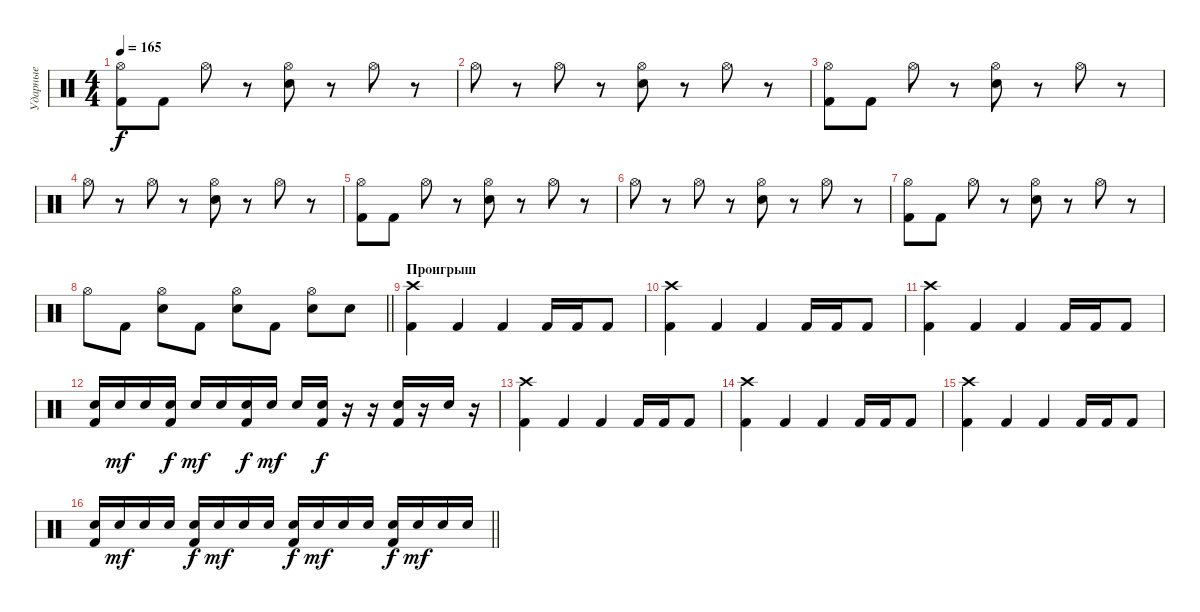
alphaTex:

\track ("Ударные" "Ударные") {instrument percussion}
\staff {score}
\articulation defaults
\ts (4 4)
\tempo 165
\clef neutral
\ks c
("Kick (hit) 2" "Hi-Hat (open)").8{dy f} "Kick (hit) 2".8 "Hi-Hat (open)".8 r.8 ("Electric Snare (hit)" "Hi-Hat (open)").8 r.8 "Hi-Hat (open)".8 r.8 |
"Hi-Hat (open)".8 r.8 "Hi-Hat (open)".8 r.8 ("Electric Snare (hit)" "Hi-Hat (open)").8 r.8 "Hi-Hat (open)".8 r.8 |
("Kick (hit) 2" "Hi-Hat (open)").8 "Kick (hit) 2".8 "Hi-Hat (open)".8 r.8 ("Electric Snare (hit)" "Hi-Hat (open)").8 r.8 "Hi-Hat (open)".8 r.8 |
"Hi-Hat (open)".8 r.8 "Hi-Hat (open)".8 r.8 ("Electric Snare (hit)" "Hi-Hat (open)").8 r.8 "Hi-Hat (open)".8 r.8 |
("Kick (hit) 2" "Hi-Hat (open)").8 "Kick (hit) 2".8 "Hi-Hat (open)".8 r.8 ("Electric Snare (hit)" "Hi-Hat (open)").8 r.8 "Hi-Hat (open)".8 r.8 |
"Hi-Hat (open)".8 r.8 "Hi-Hat (open)".8 r.8 ("Electric Snare (hit)" "Hi-Hat (open)").8 r.8 "Hi-Hat (open)".8 r.8 |
("Kick (hit) 2" "Hi-Hat (open)").8 "Kick (hit) 2".8 "Hi-Hat (open)".8 r.8 ("Electric Snare (hit)" "Hi-Hat (open)").8 r.8 "Hi-Hat (open)".8 r.8 |
\barLineRight lightlight "Hi-Hat (open)".8 "Kick (hit) 2".8
("Electric Snare (hit)" "Hi-Hat (open)").8 "Kick (hit) 2".8 ("Electric Snare (hit)" "Hi-Hat (open)").8 "Kick (hit) 2".8 ("Electric Snare (hit)" "Hi-Hat (open)").8 "Electric Snare (hit)".8 |
\section ("" "Проигрыш")
("Kick (hit) 2" "Crash high (hit)").4 "Kick (hit) 2".4 "Kick (hit) 2".4 "Kick (hit) 2".16 "Kick (hit) 2".16 "Kick (hit) 2".8 |
("Kick (hit) 2" "Crash high (hit)").4 "Kick (hit) 2".4 "Kick (hit) 2".4 "Kick (hit) 2".16 "Kick (hit) 2".16 "Kick (hit) 2".8 |
("Kick (hit) 2" "Crash high (hit)").4 "Kick (hit) 2".4 "Kick (hit) 2".4 "Kick (hit) 2".16 "Kick (hit) 2".16 "Kick (hit) 2".8 |
("Electric Snare (hit)" "Kick (hit) 2").16 "Electric Snare (hit)".16{dy mf} "Electric Snare (hit)".16 ("Electric Snare (hit)" "Kick (hit) 2").16{dy f} "Electric Snare (hit)".16{dy mf} "Electric Snare (hit)".16 ("Electric Snare (hit)" "Kick (hit) 2").16{dy f} "Electric Snare (hit)".16{dy mf} "Electric Snare (hit)".16 ("Electric Snare (hit)" "Kick (hit) 2").16{dy f} r.16 r.16 ("Electric Snare (hit)" "Kick (hit) 2").16 r.16 "Electric Snare (hit)".16 r.16 |
("Kick (hit) 2" "Crash high (hit)").4 "Kick (hit) 2".4 "Kick (hit) 2".4 "Kick (hit) 2".16 "Kick (hit) 2".16 "Kick (hit) 2".8 |
("Kick (hit) 2" "Crash high (hit)").4 "Kick (hit) 2".4 "Kick (hit) 2".4 "Kick (hit) 2".16 "Kick (hit) 2".16 "Kick (hit) 2".8 |
("Kick (hit) 2" "Crash high (hit)").4 "Kick (hit) 2".4 "Kick (hit) 2".4 "Kick (hit) 2".16 "Kick (hit) 2".16 "Kick (hit) 2".8 |
\barLineRight lightlight
("Electric Snare (hit)" "Kick (hit) 2").16 "Electric Snare (hit)".16{dy mf} "Electric Snare (hit)".16 "Electric Snare (hit)".16 ("Electric Snare (hit)" "Kick (hit) 2").16{dy f} "Electric Snare (hit)".16{dy mf} "Electric Snare (hit)".16 "Electric Snare (hit)".16 ("Electric Snare (hit)" "Kick (hit) 2").16{dy f} "Electric Snare (hit)".16{dy mf} "Electric Snare (hit)".16 "Electric Snare (hit)".16 ("Electric Snare (hit)" "Kick (hit) 2").16{dy f} "Electric Snare (hit)".16{dy mf} "Electric Snare (hit)".16 "Electric Snare (hit)".16
